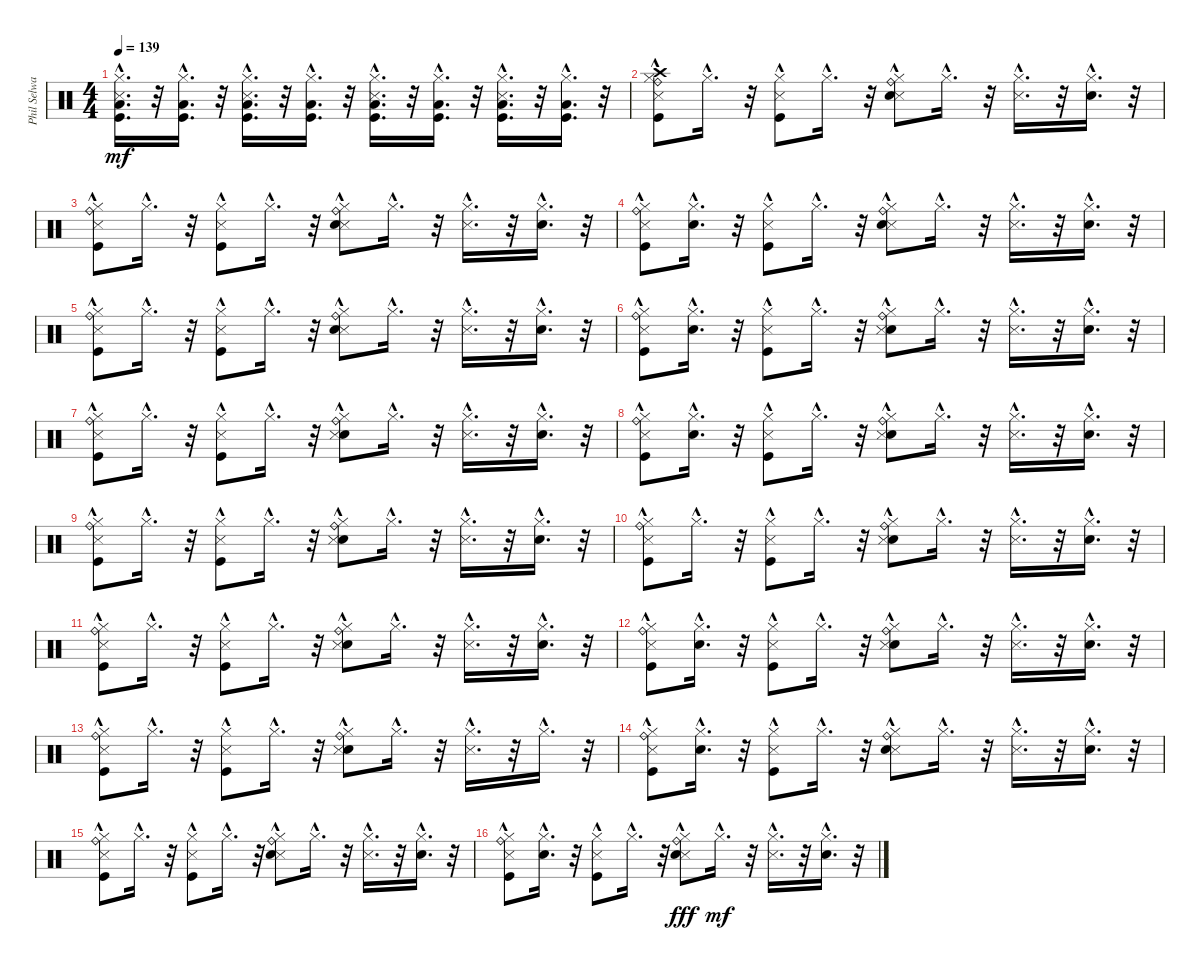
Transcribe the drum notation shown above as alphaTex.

\track ("Phil Selway - Drums" "Phil Selwa") {instrument percussion}
\staff {score}
\articulation defaults
\ts (4 4)
\tempo 139
\clef neutral
\ks c
("Low Floor Tom (hit)"{hac} "Kick (hit)"{hac} "Hi-Hat (closed)"{hac} "Snare (side stick) 3"{hac}).16{d dy mf} r.32 ("Low Floor Tom (hit)"{hac} "Kick (hit)"{hac} "Hi-Hat (closed)"{hac}).16{d} r.32 ("Low Floor Tom (hit)"{hac} "Kick (hit)"{hac} "Hi-Hat (closed)"{hac} "Snare (side stick) 3"{hac}).16{d} r.32 ("Low Floor Tom (hit)"{hac} "Kick (hit)"{hac} "Hi-Hat (closed)"{hac}).16{d} r.32 ("Low Floor Tom (hit)"{hac} "Kick (hit)"{hac} "Hi-Hat (closed)"{hac} "Snare (side stick) 3"{hac}).16{d} r.32 ("Low Floor Tom (hit)"{hac} "Kick (hit)"{hac} "Hi-Hat (closed)"{hac}).16{d} r.32 ("Low Floor Tom (hit)"{hac} "Kick (hit)"{hac} "Hi-Hat (closed)"{hac} "Snare (side stick) 3"{hac}).16{d} r.32 ("Low Floor Tom (hit)"{hac} "Kick (hit)"{hac} "Hi-Hat (closed)"{hac}).16{d} r.32 |
("Snare (side stick) 3"{hac} "Hi-Hat (closed)"{hac} "Crash high (hit)"{hac} "Kick (hit)"{hac} "Ride (bell)"{hac}).8 "Hi-Hat (closed)"{hac}.16{d} r.32 ("Snare (side stick) 3"{hac} "Hi-Hat (closed)"{hac} "Kick (hit)"{hac}).8 "Hi-Hat (closed)"{hac}.16{d} r.32 ("Snare (side stick) 3"{hac} "Hi-Hat (closed)"{hac} "Snare (hit) 2"{hac} "Ride (bell)"{hac}).8 "Hi-Hat (closed)"{hac}.16{d} r.32 ("Snare (side stick) 3"{hac} "Hi-Hat (closed)"{hac}).16{d} r.32 ("Hi-Hat (closed)"{hac} "Snare (hit) 2"{hac}).16{d} r.32 |
("Hi-Hat (closed)"{hac} "Snare (side stick) 3"{hac} "Kick (hit)"{hac} "Ride (bell)"{hac}).8 "Hi-Hat (closed)"{hac}.16{d} r.32 ("Hi-Hat (closed)"{hac} "Snare (side stick) 3"{hac} "Kick (hit)"{hac}).8 "Hi-Hat (closed)"{hac}.16{d} r.32 ("Hi-Hat (closed)"{hac} "Snare (side stick) 3"{hac} "Snare (hit) 2"{hac} "Ride (bell)"{hac}).8 "Hi-Hat (closed)"{hac}.16{d} r.32 ("Hi-Hat (closed)"{hac} "Snare (side stick) 3"{hac}).16{d} r.32 ("Hi-Hat (closed)"{hac} "Snare (hit) 2"{hac}).16{d} r.32 |
("Hi-Hat (closed)"{hac} "Snare (side stick) 3"{hac} "Kick (hit)"{hac} "Ride (bell)"{hac}).8 ("Hi-Hat (closed)"{hac} "Snare (hit) 2"{hac}).16{d} r.32 ("Hi-Hat (closed)"{hac} "Snare (side stick) 3"{hac} "Kick (hit)"{hac}).8 "Hi-Hat (closed)"{hac}.16{d} r.32 ("Hi-Hat (closed)"{hac} "Snare (side stick) 3"{hac} "Snare (hit) 2"{hac} "Ride (bell)"{hac}).8 "Hi-Hat (closed)"{hac}.16{d} r.32 ("Hi-Hat (closed)"{hac} "Snare (side stick) 3"{hac}).16{d} r.32 ("Hi-Hat (closed)"{hac} "Snare (hit) 2"{hac}).16{d} r.32 |
("Hi-Hat (closed)"{hac} "Snare (side stick) 3"{hac} "Kick (hit)"{hac} "Ride (bell)"{hac}).8 "Hi-Hat (closed)"{hac}.16{d} r.32 ("Hi-Hat (closed)"{hac} "Snare (side stick) 3"{hac} "Kick (hit)"{hac}).8 "Hi-Hat (closed)"{hac}.16{d} r.32 ("Hi-Hat (closed)"{hac} "Snare (side stick) 3"{hac} "Snare (hit) 2"{hac} "Ride (bell)"{hac}).8 "Hi-Hat (closed)"{hac}.16{d} r.32 ("Hi-Hat (closed)"{hac} "Snare (side stick) 3"{hac}).16{d} r.32 ("Hi-Hat (closed)"{hac} "Snare (hit) 2"{hac}).16{d} r.32 |
("Ride (bell)"{hac} "Kick (hit)"{hac} "Snare (side stick) 3"{hac} "Hi-Hat (closed)"{hac}).8 ("Snare (hit) 2"{hac} "Hi-Hat (closed)"{hac}).16{d} r.32 ("Kick (hit)"{hac} "Snare (side stick) 3"{hac} "Hi-Hat (closed)"{hac}).8 "Hi-Hat (closed)"{hac}.16{d} r.32 ("Ride (bell)"{hac} "Snare (hit) 2"{hac} "Snare (side stick) 3"{hac} "Hi-Hat (closed)"{hac}).8 "Hi-Hat (closed)"{hac}.16{d} r.32 ("Snare (side stick) 3"{hac} "Hi-Hat (closed)"{hac}).16{d} r.32 ("Snare (hit) 2"{hac} "Hi-Hat (closed)"{hac}).16{d} r.32 |
("Ride (bell)"{hac} "Kick (hit)"{hac} "Snare (side stick) 3"{hac} "Hi-Hat (closed)"{hac}).8 "Hi-Hat (closed)"{hac}.16{d} r.32 ("Kick (hit)"{hac} "Snare (side stick) 3"{hac} "Hi-Hat (closed)"{hac}).8 "Hi-Hat (closed)"{hac}.16{d} r.32 ("Ride (bell)"{hac} "Snare (hit) 2"{hac} "Snare (side stick) 3"{hac} "Hi-Hat (closed)"{hac}).8 "Hi-Hat (closed)"{hac}.16{d} r.32 ("Snare (side stick) 3"{hac} "Hi-Hat (closed)"{hac}).16{d} r.32 ("Snare (hit) 2"{hac} "Hi-Hat (closed)"{hac}).16{d} r.32 |
("Ride (bell)"{hac} "Kick (hit)"{hac} "Snare (side stick) 3"{hac} "Hi-Hat (closed)"{hac}).8 ("Snare (hit) 2"{hac} "Hi-Hat (closed)"{hac}).16{d} r.32 ("Kick (hit)"{hac} "Snare (side stick) 3"{hac} "Hi-Hat (closed)"{hac}).8 "Hi-Hat (closed)"{hac}.16{d} r.32 ("Ride (bell)"{hac} "Snare (hit) 2"{hac} "Snare (side stick) 3"{hac} "Hi-Hat (closed)"{hac}).8 "Hi-Hat (closed)"{hac}.16{d} r.32 ("Snare (side stick) 3"{hac} "Hi-Hat (closed)"{hac}).16{d} r.32 ("Snare (hit) 2"{hac} "Hi-Hat (closed)"{hac}).16{d} r.32 |
("Ride (bell)"{hac} "Kick (hit)"{hac} "Snare (side stick) 3"{hac} "Hi-Hat (closed)"{hac}).8 "Hi-Hat (closed)"{hac}.16{d} r.32 ("Kick (hit)"{hac} "Snare (side stick) 3"{hac} "Hi-Hat (closed)"{hac}).8 "Hi-Hat (closed)"{hac}.16{d} r.32 ("Ride (bell)"{hac} "Snare (hit) 2"{hac} "Snare (side stick) 3"{hac} "Hi-Hat (closed)"{hac}).8 "Hi-Hat (closed)"{hac}.16{d} r.32 ("Snare (side stick) 3"{hac} "Hi-Hat (closed)"{hac}).16{d} r.32 ("Snare (hit) 2"{hac} "Hi-Hat (closed)"{hac}).16{d} r.32 |
("Ride (bell)"{hac} "Kick (hit)"{hac} "Hi-Hat (closed)"{hac} "Snare (side stick) 3"{hac}).8 "Hi-Hat (closed)"{hac}.16{d} r.32 ("Kick (hit)"{hac} "Hi-Hat (closed)"{hac} "Snare (side stick) 3"{hac}).8 "Hi-Hat (closed)"{hac}.16{d} r.32 ("Ride (bell)"{hac} "Snare (hit) 2"{hac} "Hi-Hat (closed)"{hac} "Snare (side stick) 3"{hac}).8 "Hi-Hat (closed)"{hac}.16{d} r.32 ("Hi-Hat (closed)"{hac} "Snare (side stick) 3"{hac}).16{d} r.32 ("Snare (hit) 2"{hac} "Hi-Hat (closed)"{hac}).16{d} r.32 |
("Ride (bell)"{hac} "Kick (hit)"{hac} "Snare (side stick) 3"{hac} "Hi-Hat (closed)"{hac}).8 "Hi-Hat (closed)"{hac}.16{d} r.32 ("Kick (hit)"{hac} "Snare (side stick) 3"{hac} "Hi-Hat (closed)"{hac}).8 "Hi-Hat (closed)"{hac}.16{d} r.32 ("Ride (bell)"{hac} "Snare (hit) 2"{hac} "Snare (side stick) 3"{hac} "Hi-Hat (closed)"{hac}).8 "Hi-Hat (closed)"{hac}.16{d} r.32 ("Snare (side stick) 3"{hac} "Hi-Hat (closed)"{hac}).16{d} r.32 ("Snare (hit) 2"{hac} "Hi-Hat (closed)"{hac}).16{d} r.32 |
("Ride (bell)"{hac} "Kick (hit)"{hac} "Snare (side stick) 3"{hac} "Hi-Hat (closed)"{hac}).8 ("Snare (hit) 2"{hac} "Hi-Hat (closed)"{hac}).16{d} r.32 ("Kick (hit)"{hac} "Snare (side stick) 3"{hac} "Hi-Hat (closed)"{hac}).8 "Hi-Hat (closed)"{hac}.16{d} r.32 ("Ride (bell)"{hac} "Snare (hit) 2"{hac} "Snare (side stick) 3"{hac} "Hi-Hat (closed)"{hac}).8 "Hi-Hat (closed)"{hac}.16{d} r.32 ("Snare (side stick) 3"{hac} "Hi-Hat (closed)"{hac}).16{d} r.32 ("Snare (hit) 2"{hac} "Hi-Hat (closed)"{hac}).16{d} r.32 |
("Ride (bell)"{hac} "Kick (hit)"{hac} "Snare (side stick) 3"{hac} "Hi-Hat (closed)"{hac}).8 "Hi-Hat (closed)"{hac}.16{d} r.32 ("Kick (hit)"{hac} "Snare (side stick) 3"{hac} "Hi-Hat (closed)"{hac}).8 "Hi-Hat (closed)"{hac}.16{d} r.32 ("Ride (bell)"{hac} "Snare (hit) 2"{hac} "Snare (side stick) 3"{hac} "Hi-Hat (closed)"{hac}).8 "Hi-Hat (closed)"{hac}.16{d} r.32 ("Snare (side stick) 3"{hac} "Hi-Hat (closed)"{hac}).16{d} r.32 "Hi-Hat (closed)"{hac}.16{d} r.32 |
("Hi-Hat (closed)"{hac} "Snare (side stick) 3"{hac} "Kick (hit)"{hac} "Ride (bell)"{hac}).8 ("Hi-Hat (closed)"{hac} "Snare (hit) 2"{hac}).16{d} r.32 ("Hi-Hat (closed)"{hac} "Snare (side stick) 3"{hac} "Kick (hit)"{hac}).8 "Hi-Hat (closed)"{hac}.16{d} r.32 ("Hi-Hat (closed)"{hac} "Snare (side stick) 3"{hac} "Snare (hit) 2"{hac} "Ride (bell)"{hac}).8 "Hi-Hat (closed)"{hac}.16{d} r.32 ("Hi-Hat (closed)"{hac} "Snare (side stick) 3"{hac}).16{d} r.32 ("Hi-Hat (closed)"{hac} "Snare (hit) 2"{hac}).16{d} r.32 |
("Hi-Hat (closed)"{hac} "Snare (side stick) 3"{hac} "Kick (hit)"{hac} "Ride (bell)"{hac}).8 "Hi-Hat (closed)"{hac}.16{d} r.32 ("Hi-Hat (closed)"{hac} "Snare (side stick) 3"{hac} "Kick (hit)"{hac}).8 "Hi-Hat (closed)"{hac}.16{d} r.32 ("Hi-Hat (closed)"{hac} "Snare (side stick) 3"{hac} "Snare (hit) 2"{hac} "Ride (bell)"{hac}).8 "Hi-Hat (closed)"{hac}.16{d} r.32 ("Hi-Hat (closed)"{hac} "Snare (side stick) 3"{hac}).16{d} r.32 ("Hi-Hat (closed)"{hac} "Snare (hit) 2"{hac}).16{d} r.32 |
("Hi-Hat (closed)"{hac} "Snare (side stick) 3"{hac} "Kick (hit)"{hac} "Ride (bell)"{hac}).8 ("Hi-Hat (closed)"{hac} "Snare (hit) 2"{hac}).16{d} r.32 ("Hi-Hat (closed)"{hac} "Snare (side stick) 3"{hac} "Kick (hit)"{hac}).8 "Hi-Hat (closed)"{hac}.16{d} r.32 ("Hi-Hat (closed)"{hac} "Snare (side stick) 3"{hac} "Snare (hit) 2"{hac} "Ride (bell)"{hac}).8{dy fff} "Hi-Hat (closed)"{hac}.16{d dy mf} r.32 ("Hi-Hat (closed)"{hac} "Snare (side stick) 3"{hac}).16{d} r.32 ("Hi-Hat (closed)"{hac} "Snare (hit) 2"{hac}).16{d} r.32
